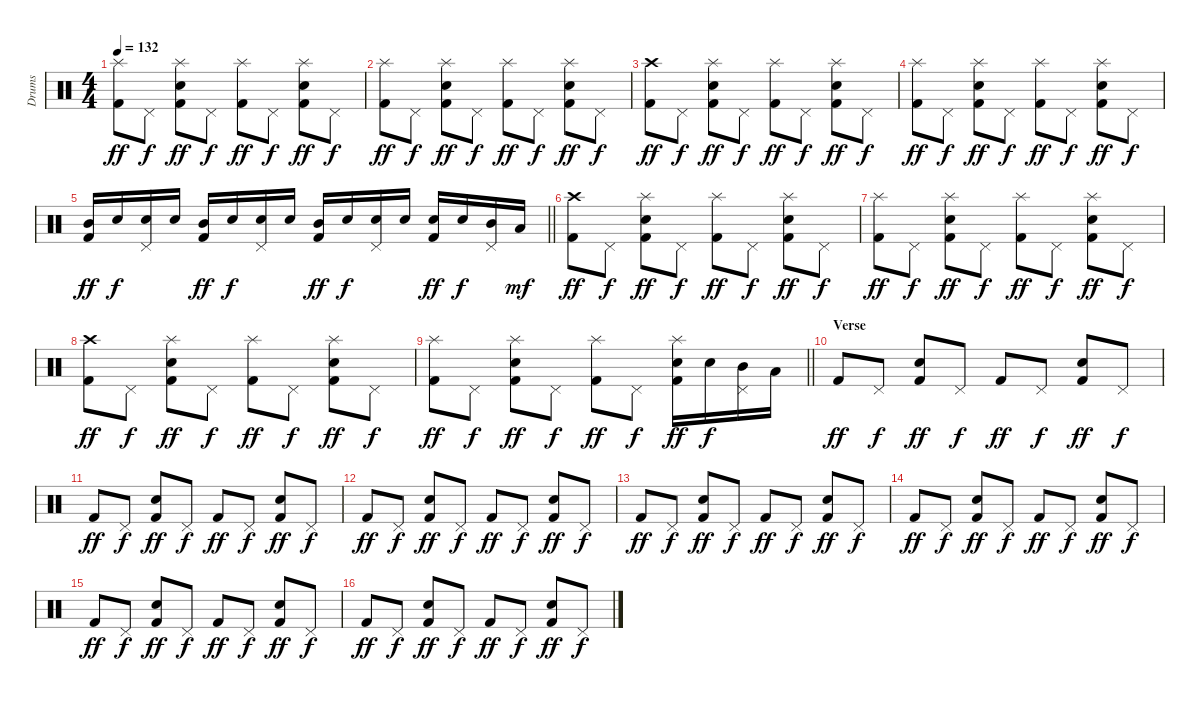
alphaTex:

\track ("Drums" "Drums") {instrument percussion}
\staff {score}
\articulation defaults
\ts (4 4)
\tempo 132
\clef neutral
\ks c
("Splash (hit)" "Kick (hit) 2").8{dy ff} "Pedal Hi-Hat (hit)".8{dy f} ("Splash (hit)" "Snare (hit) 2" "Kick (hit) 2").8{dy ff} "Pedal Hi-Hat (hit)".8{dy f} ("Splash (hit)" "Kick (hit) 2").8{dy ff} "Pedal Hi-Hat (hit)".8{dy f} ("Splash (hit)" "Snare (hit) 2" "Kick (hit) 2").8{dy ff} "Pedal Hi-Hat (hit)".8{dy f} |
("Splash (hit)" "Kick (hit) 2").8{dy ff} "Pedal Hi-Hat (hit)".8{dy f} ("Splash (hit)" "Snare (hit) 2" "Kick (hit) 2").8{dy ff} "Pedal Hi-Hat (hit)".8{dy f} ("Splash (hit)" "Kick (hit) 2").8{dy ff} "Pedal Hi-Hat (hit)".8{dy f} ("Splash (hit)" "Snare (hit) 2" "Kick (hit) 2").8{dy ff} "Pedal Hi-Hat (hit)".8{dy f} |
("Crash high (hit)" "Kick (hit) 2").8{dy ff} "Pedal Hi-Hat (hit)".8{dy f} ("Splash (hit)" "Snare (hit) 2" "Kick (hit) 2").8{dy ff} "Pedal Hi-Hat (hit)".8{dy f} ("Splash (hit)" "Kick (hit) 2").8{dy ff} "Pedal Hi-Hat (hit)".8{dy f} ("Splash (hit)" "Snare (hit) 2" "Kick (hit) 2").8{dy ff} "Pedal Hi-Hat (hit)".8{dy f} |
("Splash (hit)" "Kick (hit) 2").8{dy ff} "Pedal Hi-Hat (hit)".8{dy f} ("Splash (hit)" "Snare (hit) 2" "Kick (hit) 2").8{dy ff} "Pedal Hi-Hat (hit)".8{dy f} ("Splash (hit)" "Kick (hit) 2").8{dy ff} "Pedal Hi-Hat (hit)".8{dy f} ("Splash (hit)" "Snare (hit) 2" "Kick (hit) 2").8{dy ff} "Pedal Hi-Hat (hit)".8{dy f} |
\barLineRight lightlight
("Mid Tom (hit)" "Kick (hit) 2").16{dy ff} "Snare (hit) 2".16{dy f} ("Pedal Hi-Hat (hit)" "Snare (hit) 2").16 "Snare (hit) 2".16 ("Mid Tom (hit)" "Kick (hit) 2").16{dy ff} "Snare (hit) 2".16{dy f} ("Pedal Hi-Hat (hit)" "Snare (hit) 2").16 "Snare (hit) 2".16 ("Mid Tom (hit)" "Kick (hit) 2").16{dy ff} "Snare (hit) 2".16{dy f} ("Pedal Hi-Hat (hit)" "Snare (hit) 2").16 "Snare (hit) 2".16 ("Electric Snare (hit)" "Kick (hit) 2").16{dy ff} "Snare (hit) 2".16{dy f} ("Pedal Hi-Hat (hit)" "Mid Tom (hit)").16 "Low Tom (hit)".16{dy mf} |
("Crash high (hit)" "Kick (hit) 2").8{dy ff} "Pedal Hi-Hat (hit)".8{dy f} ("Splash (hit)" "Snare (hit) 2" "Kick (hit) 2").8{dy ff} "Pedal Hi-Hat (hit)".8{dy f} ("Splash (hit)" "Kick (hit) 2").8{dy ff} "Pedal Hi-Hat (hit)".8{dy f} ("Splash (hit)" "Snare (hit) 2" "Kick (hit) 2").8{dy ff} "Pedal Hi-Hat (hit)".8{dy f} |
("Splash (hit)" "Kick (hit) 2").8{dy ff} "Pedal Hi-Hat (hit)".8{dy f} ("Splash (hit)" "Snare (hit) 2" "Kick (hit) 2").8{dy ff} "Pedal Hi-Hat (hit)".8{dy f} ("Splash (hit)" "Kick (hit) 2").8{dy ff} "Pedal Hi-Hat (hit)".8{dy f} ("Splash (hit)" "Snare (hit) 2" "Kick (hit) 2").8{dy ff} "Pedal Hi-Hat (hit)".8{dy f} |
("Crash high (hit)" "Kick (hit) 2").8{dy ff} "Pedal Hi-Hat (hit)".8{dy f} ("Splash (hit)" "Snare (hit) 2" "Kick (hit) 2").8{dy ff} "Pedal Hi-Hat (hit)".8{dy f} ("Splash (hit)" "Kick (hit) 2").8{dy ff} "Pedal Hi-Hat (hit)".8{dy f} ("Splash (hit)" "Snare (hit) 2" "Kick (hit) 2").8{dy ff} "Pedal Hi-Hat (hit)".8{dy f} |
\barLineRight lightlight
("Splash (hit)" "Kick (hit) 2").8{dy ff} "Pedal Hi-Hat (hit)".8{dy f} ("Splash (hit)" "Snare (hit) 2" "Kick (hit) 2").8{dy ff} "Pedal Hi-Hat (hit)".8{dy f} ("Splash (hit)" "Kick (hit) 2").8{dy ff} "Pedal Hi-Hat (hit)".8{dy f} ("Splash (hit)" "Snare (hit) 2" "Kick (hit) 2").16{dy ff} "Snare (hit) 2".16{dy f} ("Pedal Hi-Hat (hit)" "Mid Tom (hit)").16 "Low Tom (hit)".16 |
\section ("" "Verse")
"Kick (hit) 2".8{dy ff} "Pedal Hi-Hat (hit)".8{dy f} ("Snare (hit) 2" "Kick (hit) 2").8{dy ff} "Pedal Hi-Hat (hit)".8{dy f} "Kick (hit) 2".8{dy ff} "Pedal Hi-Hat (hit)".8{dy f} ("Snare (hit) 2" "Kick (hit) 2").8{dy ff} "Pedal Hi-Hat (hit)".8{dy f} |
"Kick (hit) 2".8{dy ff} "Pedal Hi-Hat (hit)".8{dy f} ("Snare (hit) 2" "Kick (hit) 2").8{dy ff} "Pedal Hi-Hat (hit)".8{dy f} "Kick (hit) 2".8{dy ff} "Pedal Hi-Hat (hit)".8{dy f} ("Snare (hit) 2" "Kick (hit) 2").8{dy ff} "Pedal Hi-Hat (hit)".8{dy f} |
"Kick (hit) 2".8{dy ff} "Pedal Hi-Hat (hit)".8{dy f} ("Snare (hit) 2" "Kick (hit) 2").8{dy ff} "Pedal Hi-Hat (hit)".8{dy f} "Kick (hit) 2".8{dy ff} "Pedal Hi-Hat (hit)".8{dy f} ("Snare (hit) 2" "Kick (hit) 2").8{dy ff} "Pedal Hi-Hat (hit)".8{dy f} |
"Kick (hit) 2".8{dy ff} "Pedal Hi-Hat (hit)".8{dy f} ("Snare (hit) 2" "Kick (hit) 2").8{dy ff} "Pedal Hi-Hat (hit)".8{dy f} "Kick (hit) 2".8{dy ff} "Pedal Hi-Hat (hit)".8{dy f} ("Snare (hit) 2" "Kick (hit) 2").8{dy ff} "Pedal Hi-Hat (hit)".8{dy f} |
"Kick (hit) 2".8{dy ff} "Pedal Hi-Hat (hit)".8{dy f} ("Snare (hit) 2" "Kick (hit) 2").8{dy ff} "Pedal Hi-Hat (hit)".8{dy f} "Kick (hit) 2".8{dy ff} "Pedal Hi-Hat (hit)".8{dy f} ("Snare (hit) 2" "Kick (hit) 2").8{dy ff} "Pedal Hi-Hat (hit)".8{dy f} |
"Kick (hit) 2".8{dy ff} "Pedal Hi-Hat (hit)".8{dy f} ("Snare (hit) 2" "Kick (hit) 2").8{dy ff} "Pedal Hi-Hat (hit)".8{dy f} "Kick (hit) 2".8{dy ff} "Pedal Hi-Hat (hit)".8{dy f} ("Snare (hit) 2" "Kick (hit) 2").8{dy ff} "Pedal Hi-Hat (hit)".8{dy f} |
"Kick (hit) 2".8{dy ff} "Pedal Hi-Hat (hit)".8{dy f} ("Snare (hit) 2" "Kick (hit) 2").8{dy ff} "Pedal Hi-Hat (hit)".8{dy f} "Kick (hit) 2".8{dy ff} "Pedal Hi-Hat (hit)".8{dy f} ("Snare (hit) 2" "Kick (hit) 2").8{dy ff} "Pedal Hi-Hat (hit)".8{dy f}
